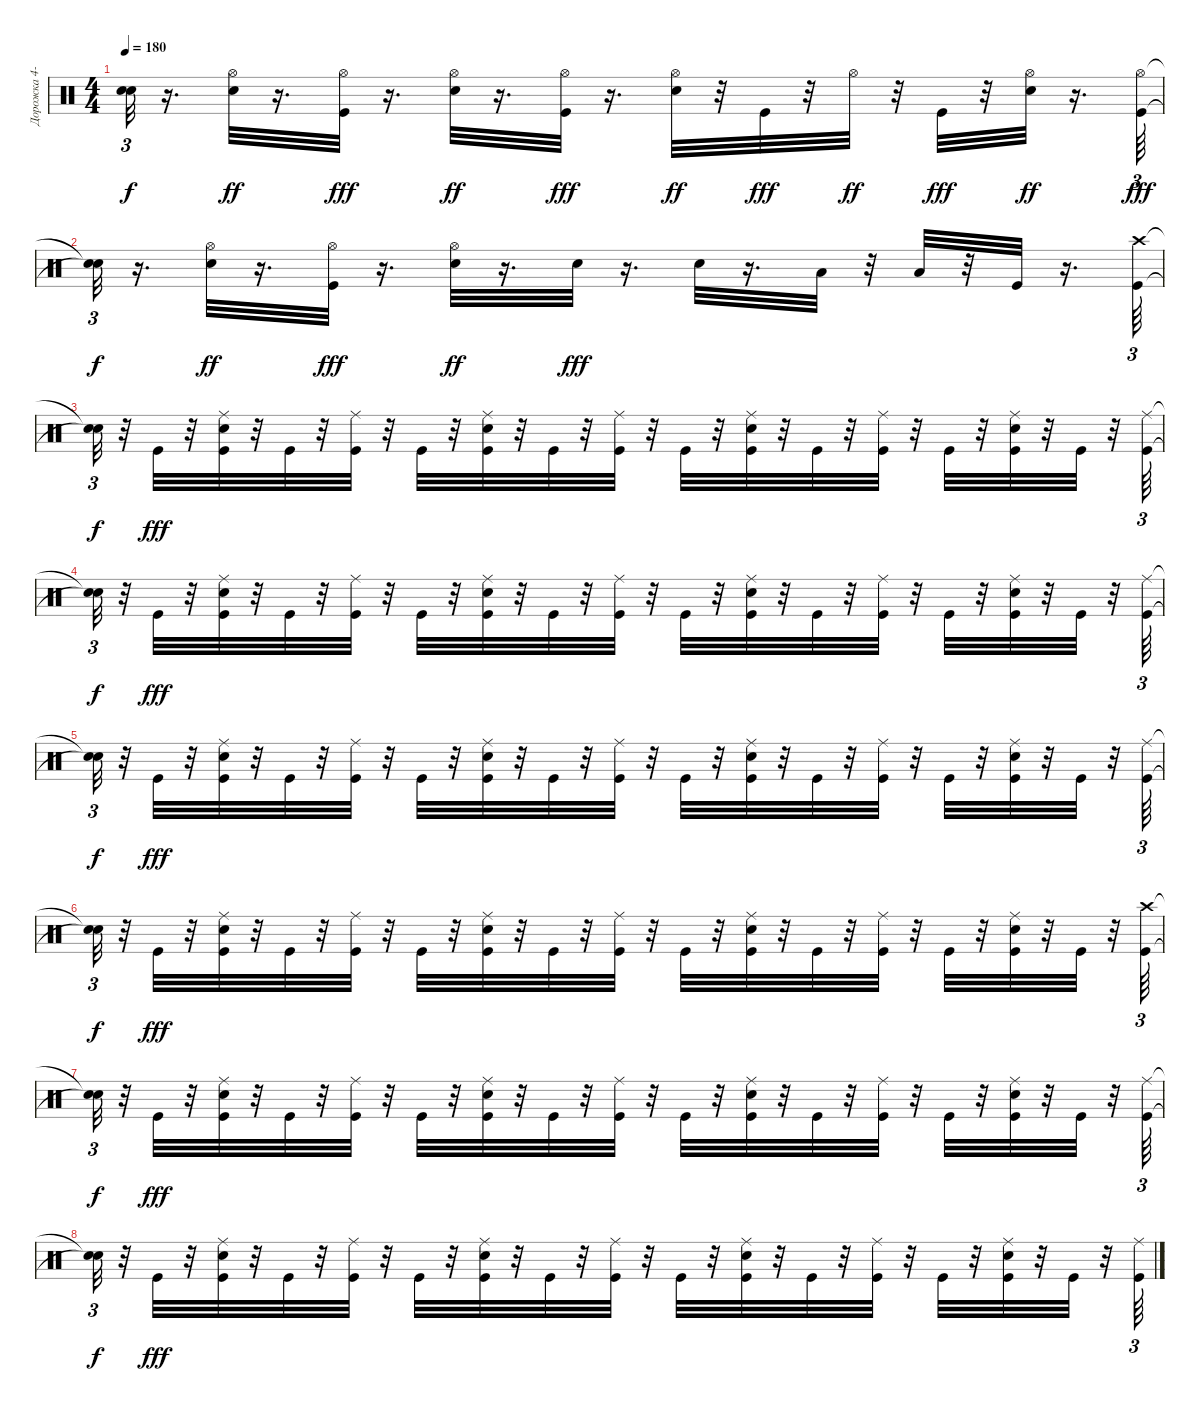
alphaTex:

\track ("Дорожка 4-10-11" "Дорожка 4-") {instrument percussion}
\staff {score}
\articulation defaults
\ts (4 4)
\tempo 180
\clef neutral
\ks c
("Snare (hit)"{t} "Snare (hit)"{t}).32{tu (3 2) dy f} r.16{d} ("Hi-Hat (open)" "Snare (hit) 2").32{dy ff} r.16{d} ("Hi-Hat (open)" "Kick (hit)").32{dy fff} r.16{d} ("Hi-Hat (open)" "Snare (hit) 2").32{dy ff} r.16{d} ("Hi-Hat (open)" "Kick (hit)").32{dy fff} r.16{d} ("Hi-Hat (open)" "Snare (hit) 2").32{dy ff} r.32 "Kick (hit)".32{dy fff} r.32 "Hi-Hat (open)".32{dy ff} r.32 "Kick (hit)".32{dy fff} r.32 ("Snare (hit) 2" "Hi-Hat (open)").32{dy ff} r.16{d} ("Hi-Hat (open)" "Kick (hit)").64{tu (3 2) dy fff} |
("Snare (hit)"{t} "Snare (hit)"{t}).32{tu (3 2) dy f} r.16{d} ("Hi-Hat (open)" "Snare (hit) 2").32{dy ff} r.16{d} ("Hi-Hat (open)" "Kick (hit)").32{dy fff} r.16{d} ("Hi-Hat (open)" "Snare (hit) 2").32{dy ff} r.16{d} "Snare (hit) 2".32{dy fff} r.16{d} "Snare (hit) 2".32 r.16{d} "Low Tom (hit)".32 r.32 "Low Tom (hit)".32 r.32 "Kick (hit)".32 r.16{d} ("Crash high (hit)" "Kick (hit)").64{tu (3 2)} |
("Snare (hit)"{t} "Snare (hit)"{t}).32{tu (3 2) dy f} r.32 "Kick (hit)".32{dy fff} r.32 ("Ride (middle)" "Snare (hit) 2" "Kick (hit)").32 r.32 "Kick (hit)".32 r.32 ("Ride (middle)" "Kick (hit)").32 r.32 "Kick (hit)".32 r.32 ("Ride (middle)" "Snare (hit) 2" "Kick (hit)").32 r.32 "Kick (hit)".32 r.32 ("Ride (middle)" "Kick (hit)").32 r.32 "Kick (hit)".32 r.32 ("Ride (middle)" "Snare (hit) 2" "Kick (hit)").32 r.32 "Kick (hit)".32 r.32 ("Ride (middle)" "Kick (hit)").32 r.32 "Kick (hit)".32 r.32 ("Ride (middle)" "Snare (hit) 2" "Kick (hit)").32 r.32 "Kick (hit)".32 r.32 ("Ride (middle)" "Kick (hit)").64{tu (3 2)} |
("Snare (hit)"{t} "Snare (hit)"{t}).32{tu (3 2) dy f} r.32 "Kick (hit)".32{dy fff} r.32 ("Ride (middle)" "Snare (hit) 2" "Kick (hit)").32 r.32 "Kick (hit)".32 r.32 ("Ride (middle)" "Kick (hit)").32 r.32 "Kick (hit)".32 r.32 ("Ride (middle)" "Snare (hit) 2" "Kick (hit)").32 r.32 "Kick (hit)".32 r.32 ("Ride (middle)" "Kick (hit)").32 r.32 "Kick (hit)".32 r.32 ("Ride (middle)" "Snare (hit) 2" "Kick (hit)").32 r.32 "Kick (hit)".32 r.32 ("Ride (middle)" "Kick (hit)").32 r.32 "Kick (hit)".32 r.32 ("Ride (middle)" "Snare (hit) 2" "Kick (hit)").32 r.32 "Kick (hit)".32 r.32 ("Ride (middle)" "Kick (hit)").64{tu (3 2)} |
("Snare (hit)"{t} "Snare (hit)"{t}).32{tu (3 2) dy f} r.32 "Kick (hit)".32{dy fff} r.32 ("Ride (middle)" "Snare (hit) 2" "Kick (hit)").32 r.32 "Kick (hit)".32 r.32 ("Ride (middle)" "Kick (hit)").32 r.32 "Kick (hit)".32 r.32 ("Ride (middle)" "Snare (hit) 2" "Kick (hit)").32 r.32 "Kick (hit)".32 r.32 ("Ride (middle)" "Kick (hit)").32 r.32 "Kick (hit)".32 r.32 ("Ride (middle)" "Snare (hit) 2" "Kick (hit)").32 r.32 "Kick (hit)".32 r.32 ("Ride (middle)" "Kick (hit)").32 r.32 "Kick (hit)".32 r.32 ("Ride (middle)" "Snare (hit) 2" "Kick (hit)").32 r.32 "Kick (hit)".32 r.32 ("Ride (middle)" "Kick (hit)").64{tu (3 2)} |
("Snare (hit)"{t} "Snare (hit)"{t}).32{tu (3 2) dy f} r.32 "Kick (hit)".32{dy fff} r.32 ("Ride (middle)" "Snare (hit) 2" "Kick (hit)").32 r.32 "Kick (hit)".32 r.32 ("Ride (middle)" "Kick (hit)").32 r.32 "Kick (hit)".32 r.32 ("Ride (middle)" "Snare (hit) 2" "Kick (hit)").32 r.32 "Kick (hit)".32 r.32 ("Ride (middle)" "Kick (hit)").32 r.32 "Kick (hit)".32 r.32 ("Ride (middle)" "Snare (hit) 2" "Kick (hit)").32 r.32 "Kick (hit)".32 r.32 ("Ride (middle)" "Kick (hit)").32 r.32 "Kick (hit)".32 r.32 ("Ride (middle)" "Snare (hit) 2" "Kick (hit)").32 r.32 "Kick (hit)".32 r.32 ("Crash high (hit)" "Kick (hit)").64{tu (3 2)} |
("Snare (hit)"{t} "Snare (hit)"{t}).32{tu (3 2) dy f} r.32 "Kick (hit)".32{dy fff} r.32 ("Ride (middle)" "Snare (hit) 2" "Kick (hit)").32 r.32 "Kick (hit)".32 r.32 ("Ride (middle)" "Kick (hit)").32 r.32 "Kick (hit)".32 r.32 ("Ride (middle)" "Snare (hit) 2" "Kick (hit)").32 r.32 "Kick (hit)".32 r.32 ("Ride (middle)" "Kick (hit)").32 r.32 "Kick (hit)".32 r.32 ("Ride (middle)" "Snare (hit) 2" "Kick (hit)").32 r.32 "Kick (hit)".32 r.32 ("Ride (middle)" "Kick (hit)").32 r.32 "Kick (hit)".32 r.32 ("Ride (middle)" "Snare (hit) 2" "Kick (hit)").32 r.32 "Kick (hit)".32 r.32 ("Ride (middle)" "Kick (hit)").64{tu (3 2)} |
("Snare (hit)"{t} "Snare (hit)"{t}).32{tu (3 2) dy f} r.32 "Kick (hit)".32{dy fff} r.32 ("Ride (middle)" "Snare (hit) 2" "Kick (hit)").32 r.32 "Kick (hit)".32 r.32 ("Ride (middle)" "Kick (hit)").32 r.32 "Kick (hit)".32 r.32 ("Ride (middle)" "Snare (hit) 2" "Kick (hit)").32 r.32 "Kick (hit)".32 r.32 ("Ride (middle)" "Kick (hit)").32 r.32 "Kick (hit)".32 r.32 ("Ride (middle)" "Snare (hit) 2" "Kick (hit)").32 r.32 "Kick (hit)".32 r.32 ("Ride (middle)" "Kick (hit)").32 r.32 "Kick (hit)".32 r.32 ("Ride (middle)" "Snare (hit) 2" "Kick (hit)").32 r.32 "Kick (hit)".32 r.32 ("Ride (middle)" "Kick (hit)").64{tu (3 2)}
